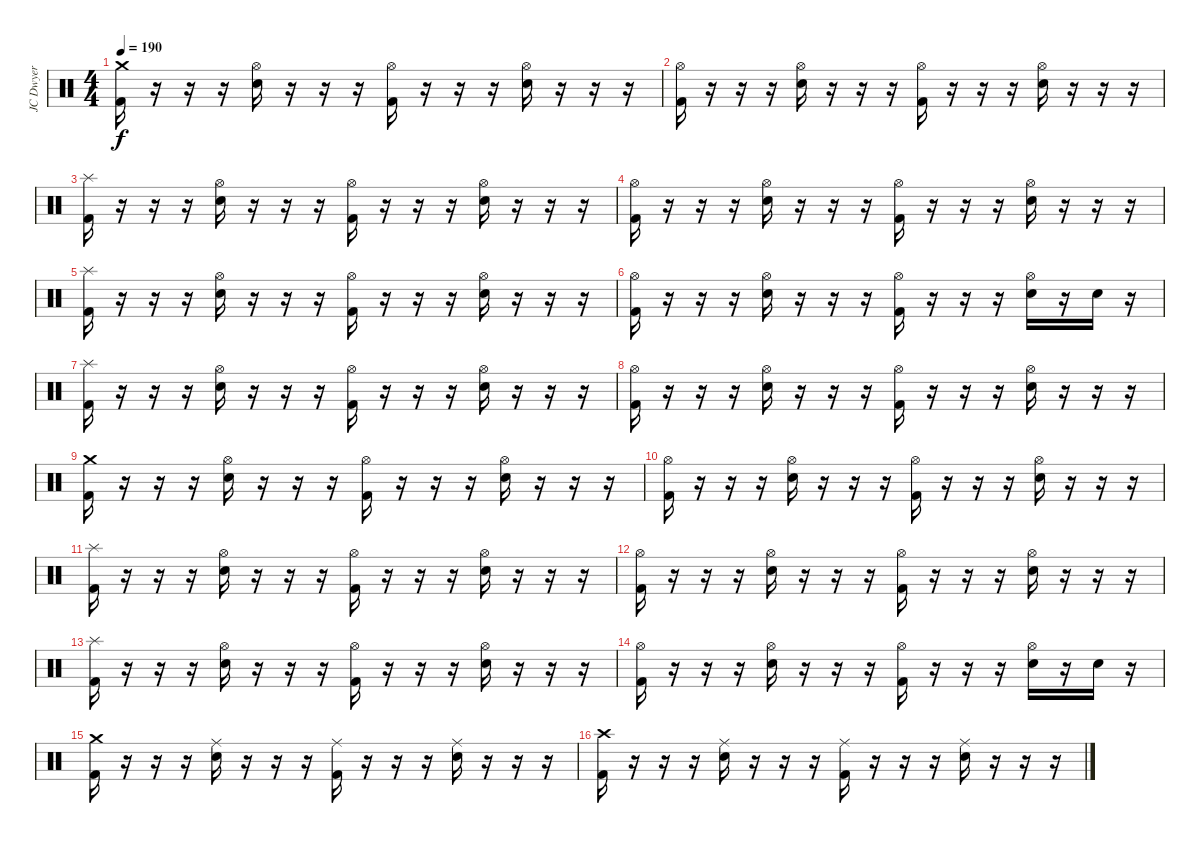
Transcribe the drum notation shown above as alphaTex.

\track ("JC Dwyer" "JC Dwyer") {instrument percussion}
\staff {score}
\articulation defaults
\ts (4 4)
\tempo 190
\clef neutral
\ks c
("Crash medium (hit)" "Kick (hit) 2").16{dy f} r.16 r.16 r.16 ("Hi-Hat (open)" "Electric Snare (hit)").16 r.16 r.16 r.16 ("Hi-Hat (open)" "Kick (hit) 2").16 r.16 r.16 r.16 ("Hi-Hat (open)" "Electric Snare (hit)").16 r.16 r.16 r.16 |
("Hi-Hat (open)" "Kick (hit) 2").16 r.16 r.16 r.16 ("Hi-Hat (open)" "Electric Snare (hit)").16 r.16 r.16 r.16 ("Hi-Hat (open)" "Kick (hit) 2").16 r.16 r.16 r.16 ("Hi-Hat (open)" "Electric Snare (hit)").16 r.16 r.16 r.16 |
("Splash (hit)" "Kick (hit) 2").16 r.16 r.16 r.16 ("Hi-Hat (open)" "Electric Snare (hit)").16 r.16 r.16 r.16 ("Hi-Hat (open)" "Kick (hit) 2").16 r.16 r.16 r.16 ("Hi-Hat (open)" "Electric Snare (hit)").16 r.16 r.16 r.16 |
("Hi-Hat (open)" "Kick (hit) 2").16 r.16 r.16 r.16 ("Hi-Hat (open)" "Electric Snare (hit)").16 r.16 r.16 r.16 ("Hi-Hat (open)" "Kick (hit) 2").16 r.16 r.16 r.16 ("Hi-Hat (open)" "Electric Snare (hit)").16 r.16 r.16 r.16 |
("Splash (hit)" "Kick (hit) 2").16 r.16 r.16 r.16 ("Hi-Hat (open)" "Electric Snare (hit)").16 r.16 r.16 r.16 ("Hi-Hat (open)" "Kick (hit) 2").16 r.16 r.16 r.16 ("Hi-Hat (open)" "Electric Snare (hit)").16 r.16 r.16 r.16 |
("Hi-Hat (open)" "Kick (hit) 2").16 r.16 r.16 r.16 ("Hi-Hat (open)" "Electric Snare (hit)").16 r.16 r.16 r.16 ("Hi-Hat (open)" "Kick (hit) 2").16 r.16 r.16 r.16 ("Hi-Hat (open)" "Electric Snare (hit)").16 r.16 "Electric Snare (hit)".16 r.16 |
("Splash (hit)" "Kick (hit) 2").16 r.16 r.16 r.16 ("Hi-Hat (open)" "Electric Snare (hit)").16 r.16 r.16 r.16 ("Hi-Hat (open)" "Kick (hit) 2").16 r.16 r.16 r.16 ("Hi-Hat (open)" "Electric Snare (hit)").16 r.16 r.16 r.16 |
("Hi-Hat (open)" "Kick (hit) 2").16 r.16 r.16 r.16 ("Hi-Hat (open)" "Electric Snare (hit)").16 r.16 r.16 r.16 ("Hi-Hat (open)" "Kick (hit) 2").16 r.16 r.16 r.16 ("Hi-Hat (open)" "Electric Snare (hit)").16 r.16 r.16 r.16 |
("Crash medium (hit)" "Kick (hit) 2").16 r.16 r.16 r.16 ("Hi-Hat (open)" "Electric Snare (hit)").16 r.16 r.16 r.16 ("Hi-Hat (open)" "Kick (hit) 2").16 r.16 r.16 r.16 ("Hi-Hat (open)" "Electric Snare (hit)").16 r.16 r.16 r.16 |
("Hi-Hat (open)" "Kick (hit) 2").16 r.16 r.16 r.16 ("Hi-Hat (open)" "Electric Snare (hit)").16 r.16 r.16 r.16 ("Hi-Hat (open)" "Kick (hit) 2").16 r.16 r.16 r.16 ("Hi-Hat (open)" "Electric Snare (hit)").16 r.16 r.16 r.16 |
("Splash (hit)" "Kick (hit) 2").16 r.16 r.16 r.16 ("Hi-Hat (open)" "Electric Snare (hit)").16 r.16 r.16 r.16 ("Hi-Hat (open)" "Kick (hit) 2").16 r.16 r.16 r.16 ("Hi-Hat (open)" "Electric Snare (hit)").16 r.16 r.16 r.16 |
("Hi-Hat (open)" "Kick (hit) 2").16 r.16 r.16 r.16 ("Hi-Hat (open)" "Electric Snare (hit)").16 r.16 r.16 r.16 ("Hi-Hat (open)" "Kick (hit) 2").16 r.16 r.16 r.16 ("Hi-Hat (open)" "Electric Snare (hit)").16 r.16 r.16 r.16 |
("Splash (hit)" "Kick (hit) 2").16 r.16 r.16 r.16 ("Hi-Hat (open)" "Electric Snare (hit)").16 r.16 r.16 r.16 ("Hi-Hat (open)" "Kick (hit) 2").16 r.16 r.16 r.16 ("Hi-Hat (open)" "Electric Snare (hit)").16 r.16 r.16 r.16 |
("Hi-Hat (open)" "Kick (hit) 2").16 r.16 r.16 r.16 ("Hi-Hat (open)" "Electric Snare (hit)").16 r.16 r.16 r.16 ("Hi-Hat (open)" "Kick (hit) 2").16 r.16 r.16 r.16 ("Hi-Hat (open)" "Electric Snare (hit)").16 r.16 "Electric Snare (hit)".16 r.16 |
("Crash medium (hit)" "Kick (hit) 2").16 r.16 r.16 r.16 ("Ride (middle)" "Electric Snare (hit)").16 r.16 r.16 r.16 ("Ride (middle)" "Kick (hit) 2").16 r.16 r.16 r.16 ("Ride (middle)" "Electric Snare (hit)").16 r.16 r.16 r.16 |
("Crash high (hit)" "Kick (hit) 2").16 r.16 r.16 r.16 ("Ride (middle)" "Electric Snare (hit)").16 r.16 r.16 r.16 ("Ride (middle)" "Kick (hit) 2").16 r.16 r.16 r.16 ("Ride (middle)" "Electric Snare (hit)").16 r.16 r.16 r.16
